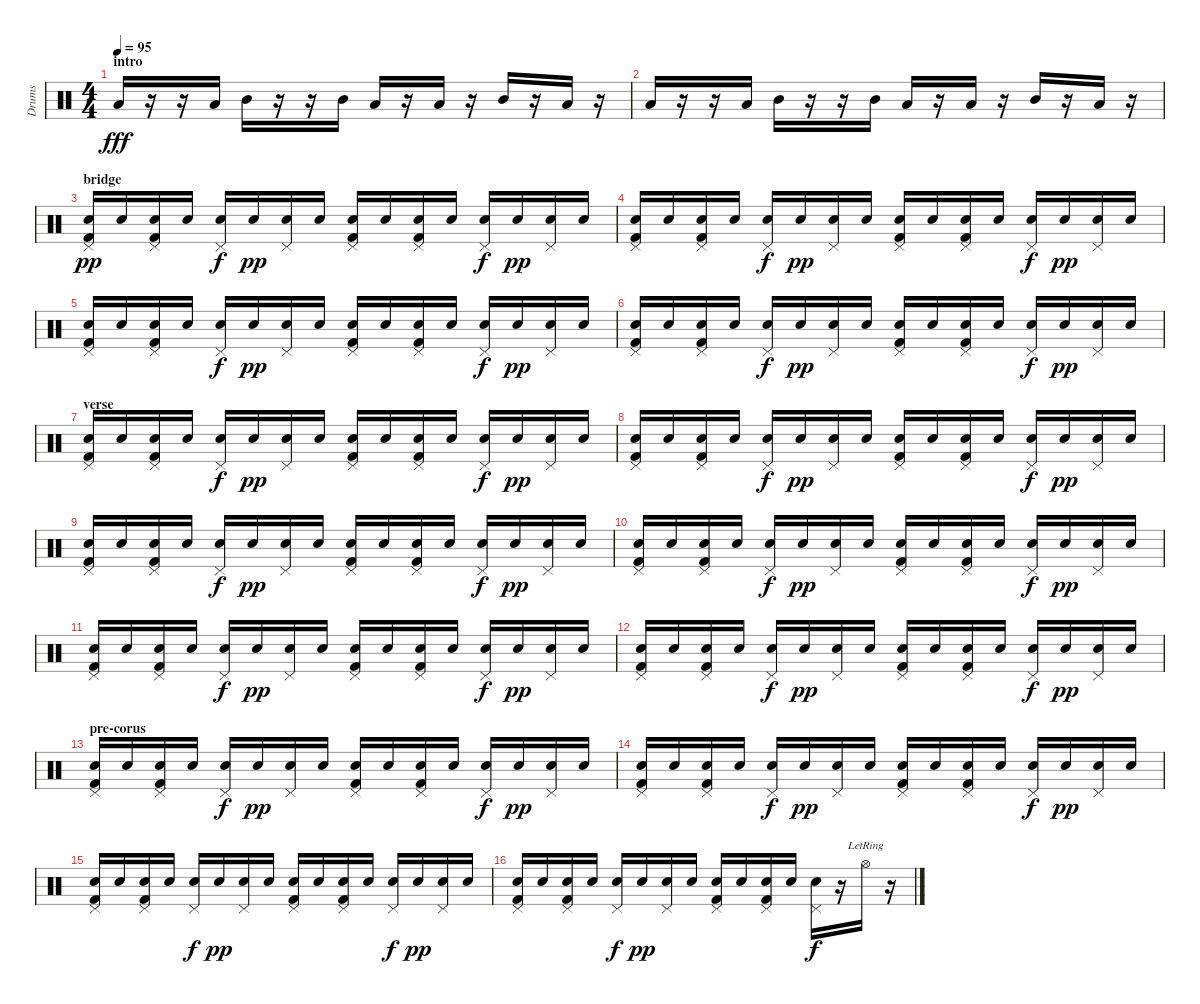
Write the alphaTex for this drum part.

\track ("Drums" "Drums") {instrument percussion}
\staff {score}
\articulation defaults
\ts (4 4)
\section ("" "intro")
\tempo 95
\clef neutral
\ks c "Low Floor Tom (hit)".16{dy fff}
r.16 r.16 "Low Floor Tom (hit)".16 "Mid Tom (hit)".16 r.16 r.16 "Mid Tom (hit)".16 "Low Floor Tom (hit)".16 r.16 "Low Floor Tom (hit)".16 r.16 "Mid Tom (hit)".16 r.16 "Low Floor Tom (hit)".16 r.16 |
"Low Floor Tom (hit)".16 r.16 r.16 "Low Floor Tom (hit)".16 "Mid Tom (hit)".16 r.16 r.16 "Mid Tom (hit)".16 "Low Floor Tom (hit)".16 r.16 "Low Floor Tom (hit)".16 r.16 "Mid Tom (hit)".16 r.16 "Low Floor Tom (hit)".16 r.16 |
\section ("" "bridge")
("Pedal Hi-Hat (hit)" "Snare (hit) 2" "Kick (hit) 2").16{dy pp} "Snare (hit) 2".16 ("Pedal Hi-Hat (hit)" "Snare (hit) 2" "Kick (hit) 2").16 "Snare (hit) 2".16 ("Pedal Hi-Hat (hit)" "Electric Snare (hit)").16{dy f} "Snare (hit) 2".16{dy pp} ("Pedal Hi-Hat (hit)" "Snare (hit) 2").16 "Snare (hit) 2".16 ("Pedal Hi-Hat (hit)" "Snare (hit) 2" "Kick (hit) 2").16 "Snare (hit) 2".16 ("Pedal Hi-Hat (hit)" "Snare (hit) 2" "Kick (hit) 2").16 "Snare (hit) 2".16 ("Pedal Hi-Hat (hit)" "Electric Snare (hit)").16{dy f} "Snare (hit) 2".16{dy pp} ("Pedal Hi-Hat (hit)" "Snare (hit) 2").16 "Snare (hit) 2".16 |
("Pedal Hi-Hat (hit)" "Snare (hit) 2" "Kick (hit) 2").16 "Snare (hit) 2".16 ("Pedal Hi-Hat (hit)" "Snare (hit) 2" "Kick (hit) 2").16 "Snare (hit) 2".16 ("Pedal Hi-Hat (hit)" "Electric Snare (hit)").16{dy f} "Snare (hit) 2".16{dy pp} ("Pedal Hi-Hat (hit)" "Snare (hit) 2").16 "Snare (hit) 2".16 ("Pedal Hi-Hat (hit)" "Snare (hit) 2" "Kick (hit) 2").16 "Snare (hit) 2".16 ("Pedal Hi-Hat (hit)" "Snare (hit) 2" "Kick (hit) 2").16 "Snare (hit) 2".16 ("Pedal Hi-Hat (hit)" "Electric Snare (hit)").16{dy f} "Snare (hit) 2".16{dy pp} ("Pedal Hi-Hat (hit)" "Snare (hit) 2").16 "Snare (hit) 2".16 |
("Pedal Hi-Hat (hit)" "Snare (hit) 2" "Kick (hit) 2").16 "Snare (hit) 2".16 ("Pedal Hi-Hat (hit)" "Snare (hit) 2" "Kick (hit) 2").16 "Snare (hit) 2".16 ("Pedal Hi-Hat (hit)" "Electric Snare (hit)").16{dy f} "Snare (hit) 2".16{dy pp} ("Pedal Hi-Hat (hit)" "Snare (hit) 2").16 "Snare (hit) 2".16 ("Pedal Hi-Hat (hit)" "Snare (hit) 2" "Kick (hit) 2").16 "Snare (hit) 2".16 ("Pedal Hi-Hat (hit)" "Snare (hit) 2" "Kick (hit) 2").16 "Snare (hit) 2".16 ("Pedal Hi-Hat (hit)" "Electric Snare (hit)").16{dy f} "Snare (hit) 2".16{dy pp} ("Pedal Hi-Hat (hit)" "Snare (hit) 2").16 "Snare (hit) 2".16 |
("Pedal Hi-Hat (hit)" "Snare (hit) 2" "Kick (hit) 2").16 "Snare (hit) 2".16 ("Pedal Hi-Hat (hit)" "Snare (hit) 2" "Kick (hit) 2").16 "Snare (hit) 2".16 ("Pedal Hi-Hat (hit)" "Electric Snare (hit)").16{dy f} "Snare (hit) 2".16{dy pp} ("Pedal Hi-Hat (hit)" "Snare (hit) 2").16 "Snare (hit) 2".16 ("Pedal Hi-Hat (hit)" "Snare (hit) 2" "Kick (hit) 2").16 "Snare (hit) 2".16 ("Pedal Hi-Hat (hit)" "Snare (hit) 2" "Kick (hit) 2").16 "Snare (hit) 2".16 ("Pedal Hi-Hat (hit)" "Electric Snare (hit)").16{dy f} "Snare (hit) 2".16{dy pp} ("Pedal Hi-Hat (hit)" "Snare (hit) 2").16 "Snare (hit) 2".16 |
\section ("" "verse")
("Pedal Hi-Hat (hit)" "Snare (hit) 2" "Kick (hit) 2").16 "Snare (hit) 2".16 ("Pedal Hi-Hat (hit)" "Snare (hit) 2" "Kick (hit) 2").16 "Snare (hit) 2".16 ("Pedal Hi-Hat (hit)" "Electric Snare (hit)").16{dy f} "Snare (hit) 2".16{dy pp} ("Pedal Hi-Hat (hit)" "Snare (hit) 2").16 "Snare (hit) 2".16 ("Pedal Hi-Hat (hit)" "Snare (hit) 2" "Kick (hit) 2").16 "Snare (hit) 2".16 ("Pedal Hi-Hat (hit)" "Snare (hit) 2" "Kick (hit) 2").16 "Snare (hit) 2".16 ("Pedal Hi-Hat (hit)" "Electric Snare (hit)").16{dy f} "Snare (hit) 2".16{dy pp} ("Pedal Hi-Hat (hit)" "Snare (hit) 2").16 "Snare (hit) 2".16 |
("Pedal Hi-Hat (hit)" "Snare (hit) 2" "Kick (hit) 2").16 "Snare (hit) 2".16 ("Pedal Hi-Hat (hit)" "Snare (hit) 2" "Kick (hit) 2").16 "Snare (hit) 2".16 ("Pedal Hi-Hat (hit)" "Electric Snare (hit)").16{dy f} "Snare (hit) 2".16{dy pp} ("Pedal Hi-Hat (hit)" "Snare (hit) 2").16 "Snare (hit) 2".16 ("Pedal Hi-Hat (hit)" "Snare (hit) 2" "Kick (hit) 2").16 "Snare (hit) 2".16 ("Pedal Hi-Hat (hit)" "Snare (hit) 2" "Kick (hit) 2").16 "Snare (hit) 2".16 ("Pedal Hi-Hat (hit)" "Electric Snare (hit)").16{dy f} "Snare (hit) 2".16{dy pp} ("Pedal Hi-Hat (hit)" "Snare (hit) 2").16 "Snare (hit) 2".16 |
("Pedal Hi-Hat (hit)" "Snare (hit) 2" "Kick (hit) 2").16 "Snare (hit) 2".16 ("Pedal Hi-Hat (hit)" "Snare (hit) 2" "Kick (hit) 2").16 "Snare (hit) 2".16 ("Pedal Hi-Hat (hit)" "Electric Snare (hit)").16{dy f} "Snare (hit) 2".16{dy pp} ("Pedal Hi-Hat (hit)" "Snare (hit) 2").16 "Snare (hit) 2".16 ("Pedal Hi-Hat (hit)" "Snare (hit) 2" "Kick (hit) 2").16 "Snare (hit) 2".16 ("Pedal Hi-Hat (hit)" "Snare (hit) 2" "Kick (hit) 2").16 "Snare (hit) 2".16 ("Pedal Hi-Hat (hit)" "Electric Snare (hit)").16{dy f} "Snare (hit) 2".16{dy pp} ("Pedal Hi-Hat (hit)" "Snare (hit) 2").16 "Snare (hit) 2".16 |
("Pedal Hi-Hat (hit)" "Snare (hit) 2" "Kick (hit) 2").16 "Snare (hit) 2".16 ("Pedal Hi-Hat (hit)" "Snare (hit) 2" "Kick (hit) 2").16 "Snare (hit) 2".16 ("Pedal Hi-Hat (hit)" "Electric Snare (hit)").16{dy f} "Snare (hit) 2".16{dy pp} ("Pedal Hi-Hat (hit)" "Snare (hit) 2").16 "Snare (hit) 2".16 ("Pedal Hi-Hat (hit)" "Snare (hit) 2" "Kick (hit) 2").16 "Snare (hit) 2".16 ("Pedal Hi-Hat (hit)" "Snare (hit) 2" "Kick (hit) 2").16 "Snare (hit) 2".16 ("Pedal Hi-Hat (hit)" "Electric Snare (hit)").16{dy f} "Snare (hit) 2".16{dy pp} ("Pedal Hi-Hat (hit)" "Snare (hit) 2").16 "Snare (hit) 2".16 |
("Pedal Hi-Hat (hit)" "Snare (hit) 2" "Kick (hit) 2").16 "Snare (hit) 2".16 ("Pedal Hi-Hat (hit)" "Snare (hit) 2" "Kick (hit) 2").16 "Snare (hit) 2".16 ("Pedal Hi-Hat (hit)" "Electric Snare (hit)").16{dy f} "Snare (hit) 2".16{dy pp} ("Pedal Hi-Hat (hit)" "Snare (hit) 2").16 "Snare (hit) 2".16 ("Pedal Hi-Hat (hit)" "Snare (hit) 2" "Kick (hit) 2").16 "Snare (hit) 2".16 ("Pedal Hi-Hat (hit)" "Snare (hit) 2" "Kick (hit) 2").16 "Snare (hit) 2".16 ("Pedal Hi-Hat (hit)" "Electric Snare (hit)").16{dy f} "Snare (hit) 2".16{dy pp} ("Pedal Hi-Hat (hit)" "Snare (hit) 2").16 "Snare (hit) 2".16 |
("Pedal Hi-Hat (hit)" "Snare (hit) 2" "Kick (hit) 2").16 "Snare (hit) 2".16 ("Pedal Hi-Hat (hit)" "Snare (hit) 2" "Kick (hit) 2").16 "Snare (hit) 2".16 ("Pedal Hi-Hat (hit)" "Electric Snare (hit)").16{dy f} "Snare (hit) 2".16{dy pp} ("Pedal Hi-Hat (hit)" "Snare (hit) 2").16 "Snare (hit) 2".16 ("Pedal Hi-Hat (hit)" "Snare (hit) 2" "Kick (hit) 2").16 "Snare (hit) 2".16 ("Pedal Hi-Hat (hit)" "Snare (hit) 2" "Kick (hit) 2").16 "Snare (hit) 2".16 ("Pedal Hi-Hat (hit)" "Electric Snare (hit)").16{dy f} "Snare (hit) 2".16{dy pp} ("Pedal Hi-Hat (hit)" "Snare (hit) 2").16 "Snare (hit) 2".16 |
\section ("" "pre-corus")
("Pedal Hi-Hat (hit)" "Snare (hit) 2" "Kick (hit) 2").16 "Snare (hit) 2".16 ("Pedal Hi-Hat (hit)" "Snare (hit) 2" "Kick (hit) 2").16 "Snare (hit) 2".16 ("Pedal Hi-Hat (hit)" "Electric Snare (hit)").16{dy f} "Snare (hit) 2".16{dy pp} ("Pedal Hi-Hat (hit)" "Snare (hit) 2").16 "Snare (hit) 2".16 ("Pedal Hi-Hat (hit)" "Snare (hit) 2" "Kick (hit) 2").16 "Snare (hit) 2".16 ("Pedal Hi-Hat (hit)" "Snare (hit) 2" "Kick (hit) 2").16 "Snare (hit) 2".16 ("Pedal Hi-Hat (hit)" "Electric Snare (hit)").16{dy f} "Snare (hit) 2".16{dy pp} ("Pedal Hi-Hat (hit)" "Snare (hit) 2").16 "Snare (hit) 2".16 |
("Pedal Hi-Hat (hit)" "Snare (hit) 2" "Kick (hit) 2").16 "Snare (hit) 2".16 ("Pedal Hi-Hat (hit)" "Snare (hit) 2" "Kick (hit) 2").16 "Snare (hit) 2".16 ("Pedal Hi-Hat (hit)" "Electric Snare (hit)").16{dy f} "Snare (hit) 2".16{dy pp} ("Pedal Hi-Hat (hit)" "Snare (hit) 2").16 "Snare (hit) 2".16 ("Pedal Hi-Hat (hit)" "Snare (hit) 2" "Kick (hit) 2").16 "Snare (hit) 2".16 ("Pedal Hi-Hat (hit)" "Snare (hit) 2" "Kick (hit) 2").16 "Snare (hit) 2".16 ("Pedal Hi-Hat (hit)" "Electric Snare (hit)").16{dy f} "Snare (hit) 2".16{dy pp} ("Pedal Hi-Hat (hit)" "Snare (hit) 2").16 "Snare (hit) 2".16 |
("Pedal Hi-Hat (hit)" "Snare (hit) 2" "Kick (hit) 2").16 "Snare (hit) 2".16 ("Pedal Hi-Hat (hit)" "Snare (hit) 2" "Kick (hit) 2").16 "Snare (hit) 2".16 ("Pedal Hi-Hat (hit)" "Electric Snare (hit)").16{dy f} "Snare (hit) 2".16{dy pp} ("Pedal Hi-Hat (hit)" "Snare (hit) 2").16 "Snare (hit) 2".16 ("Pedal Hi-Hat (hit)" "Snare (hit) 2" "Kick (hit) 2").16 "Snare (hit) 2".16 ("Pedal Hi-Hat (hit)" "Snare (hit) 2" "Kick (hit) 2").16 "Snare (hit) 2".16 ("Pedal Hi-Hat (hit)" "Electric Snare (hit)").16{dy f} "Snare (hit) 2".16{dy pp} ("Pedal Hi-Hat (hit)" "Snare (hit) 2").16 "Snare (hit) 2".16 |
("Pedal Hi-Hat (hit)" "Snare (hit) 2" "Kick (hit) 2").16 "Snare (hit) 2".16 ("Pedal Hi-Hat (hit)" "Snare (hit) 2" "Kick (hit) 2").16 "Snare (hit) 2".16 ("Pedal Hi-Hat (hit)" "Electric Snare (hit)").16{dy f} "Snare (hit) 2".16{dy pp} ("Pedal Hi-Hat (hit)" "Snare (hit) 2").16 "Snare (hit) 2".16 ("Pedal Hi-Hat (hit)" "Snare (hit) 2" "Kick (hit) 2").16 "Snare (hit) 2".16 ("Pedal Hi-Hat (hit)" "Snare (hit) 2" "Kick (hit) 2").16 "Snare (hit) 2".16 ("Pedal Hi-Hat (hit)" "Electric Snare (hit)").16{dy f} r.16 "Hi-Hat (open)"{lr}.16 r.16
